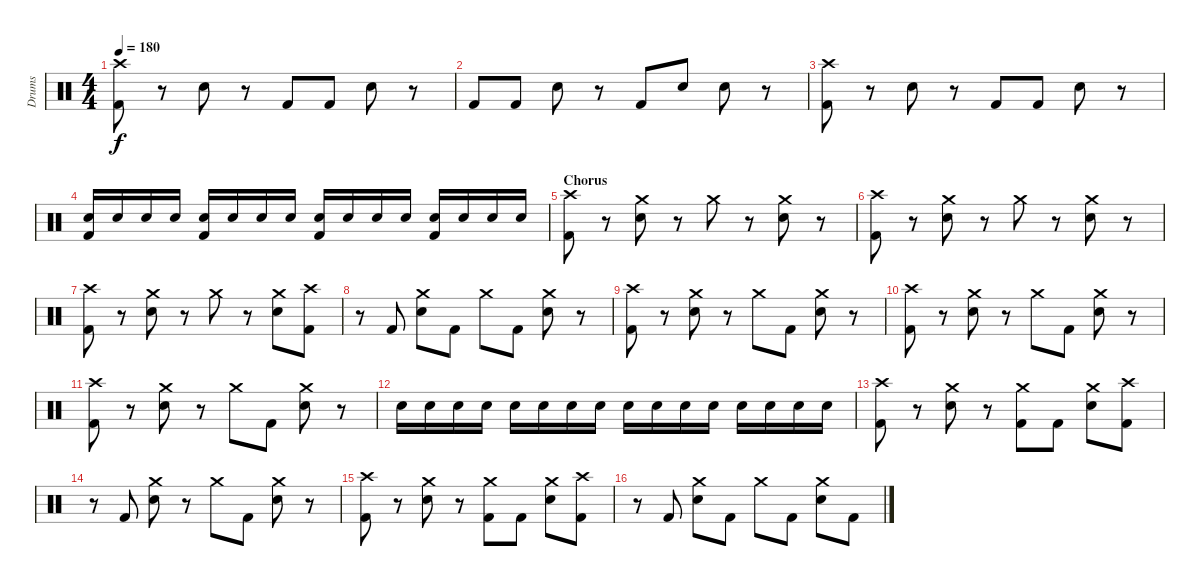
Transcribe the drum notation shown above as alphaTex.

\track ("Drums" "Drums") {instrument percussion}
\staff {score}
\articulation defaults
\ts (4 4)
\tempo 180
\clef neutral
\ks c
("Crash high (hit)" "Kick (hit) 2").8{dy f} r.8 "Electric Snare (hit)".8 r.8 "Kick (hit) 2".8 "Kick (hit) 2".8 "Electric Snare (hit)".8 r.8 |
"Kick (hit) 2".8 "Kick (hit) 2".8 "Electric Snare (hit)".8 r.8 "Kick (hit) 2".8 "Electric Snare (hit)".8 "Electric Snare (hit)".8 r.8 |
("Crash high (hit)" "Kick (hit) 2").8 r.8 "Electric Snare (hit)".8 r.8 "Kick (hit) 2".8 "Kick (hit) 2".8 "Electric Snare (hit)".8 r.8 |
("Electric Snare (hit)" "Kick (hit) 2").16 "Electric Snare (hit)".16 "Electric Snare (hit)".16 "Electric Snare (hit)".16 ("Electric Snare (hit)" "Kick (hit) 2").16 "Electric Snare (hit)".16 "Electric Snare (hit)".16 "Electric Snare (hit)".16 ("Electric Snare (hit)" "Kick (hit) 2").16 "Electric Snare (hit)".16 "Electric Snare (hit)".16 "Electric Snare (hit)".16 ("Electric Snare (hit)" "Kick (hit) 2").16 "Electric Snare (hit)".16 "Electric Snare (hit)".16 "Electric Snare (hit)".16 |
\section ("" "Chorus")
("Crash high (hit)" "Kick (hit) 2").8 r.8 ("Crash medium (hit)" "Electric Snare (hit)").8 r.8 "Crash medium (hit)".8 r.8 ("Crash medium (hit)" "Electric Snare (hit)").8 r.8 |
("Crash high (hit)" "Kick (hit) 2").8 r.8 ("Crash medium (hit)" "Electric Snare (hit)").8 r.8 "Crash medium (hit)".8 r.8 ("Crash medium (hit)" "Electric Snare (hit)").8 r.8 |
("Crash high (hit)" "Kick (hit) 2").8 r.8 ("Crash medium (hit)" "Electric Snare (hit)").8 r.8 "Crash medium (hit)".8 r.8 ("Crash medium (hit)" "Electric Snare (hit)").8 ("Crash high (hit)" "Kick (hit) 2").8 |
r.8 "Kick (hit) 2".8 ("Crash medium (hit)" "Electric Snare (hit)").8 "Kick (hit) 2".8 "Crash medium (hit)".8 "Kick (hit) 2".8 ("Crash medium (hit)" "Electric Snare (hit)").8 r.8 |
("Crash high (hit)" "Kick (hit) 2").8 r.8 ("Crash medium (hit)" "Electric Snare (hit)").8 r.8 "Crash medium (hit)".8 "Kick (hit) 2".8 ("Crash medium (hit)" "Electric Snare (hit)").8 r.8 |
("Crash high (hit)" "Kick (hit) 2").8 r.8 ("Crash medium (hit)" "Electric Snare (hit)").8 r.8 "Crash medium (hit)".8 "Kick (hit) 2".8 ("Crash medium (hit)" "Electric Snare (hit)").8 r.8 |
("Crash high (hit)" "Kick (hit) 2").8 r.8 ("Crash medium (hit)" "Electric Snare (hit)").8 r.8 "Crash medium (hit)".8 "Kick (hit) 2".8 ("Crash medium (hit)" "Electric Snare (hit)").8 r.8 |
"Electric Snare (hit)".16 "Electric Snare (hit)".16 "Electric Snare (hit)".16 "Electric Snare (hit)".16 "Electric Snare (hit)".16 "Electric Snare (hit)".16 "Electric Snare (hit)".16 "Electric Snare (hit)".16 "Electric Snare (hit)".16 "Electric Snare (hit)".16 "Electric Snare (hit)".16 "Electric Snare (hit)".16 "Electric Snare (hit)".16 "Electric Snare (hit)".16 "Electric Snare (hit)".16 "Electric Snare (hit)".16 |
("Crash high (hit)" "Kick (hit) 2").8 r.8 ("Crash medium (hit)" "Electric Snare (hit)").8 r.8 ("Crash medium (hit)" "Kick (hit) 2").8 "Kick (hit) 2".8 ("Crash medium (hit)" "Electric Snare (hit)").8 ("Crash high (hit)" "Kick (hit) 2").8 |
r.8 "Kick (hit) 2".8 ("Crash medium (hit)" "Electric Snare (hit)").8 r.8 "Crash medium (hit)".8 "Kick (hit) 2".8 ("Crash medium (hit)" "Electric Snare (hit)").8 r.8 |
("Crash high (hit)" "Kick (hit) 2").8 r.8 ("Crash medium (hit)" "Electric Snare (hit)").8 r.8 ("Crash medium (hit)" "Kick (hit) 2").8 "Kick (hit) 2".8 ("Crash medium (hit)" "Electric Snare (hit)").8 ("Crash high (hit)" "Kick (hit) 2").8 |
r.8 "Kick (hit) 2".8 ("Crash medium (hit)" "Electric Snare (hit)").8 "Kick (hit) 2".8 "Crash medium (hit)".8 "Kick (hit) 2".8 ("Crash medium (hit)" "Electric Snare (hit)").8 "Kick (hit) 2".8
